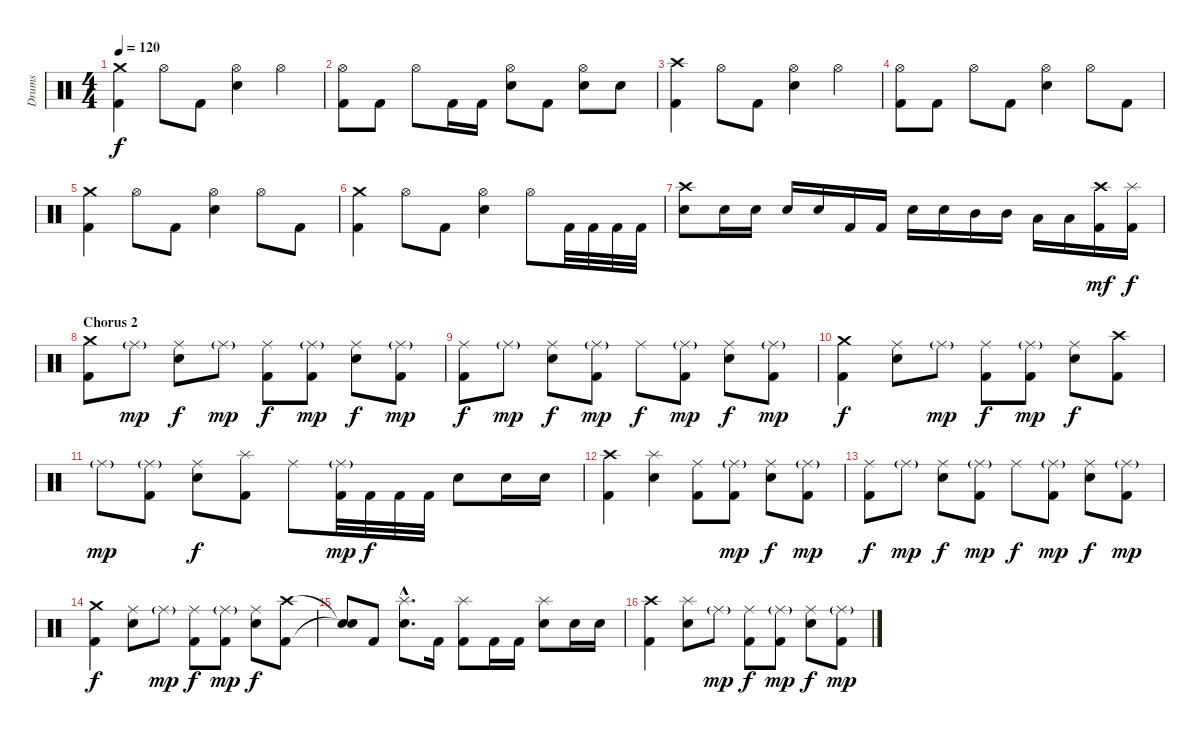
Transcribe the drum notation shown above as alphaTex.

\track ("Drums" "Drums") {instrument percussion}
\staff {score}
\articulation defaults
\ts (4 4)
\tempo 120
\clef neutral
\ks c
("Crash medium (hit)" "Kick (hit) 2").4{dy f} "Hi-Hat (open)".8 "Kick (hit) 2".8 ("Hi-Hat (open)" "Snare (hit) 2").4 "Hi-Hat (open)".4 |
("Hi-Hat (open)" "Kick (hit) 2").8 "Kick (hit) 2".8 "Hi-Hat (open)".8 "Kick (hit) 2".16 "Kick (hit) 2".16 ("Hi-Hat (open)" "Snare (hit) 2").8 "Kick (hit) 2".8 ("Hi-Hat (open)" "Snare (hit) 2").8 "Snare (hit) 2".8 |
("Crash high (hit)" "Kick (hit) 2").4 "Hi-Hat (open)".8 "Kick (hit) 2".8 ("Hi-Hat (open)" "Snare (hit) 2").4 "Hi-Hat (open)".4 |
("Hi-Hat (open)" "Kick (hit) 2").8 "Kick (hit) 2".8 "Hi-Hat (open)".8 "Kick (hit) 2".8 ("Hi-Hat (open)" "Snare (hit) 2").4 "Hi-Hat (open)".8 "Kick (hit) 2".8 |
("Crash medium (hit)" "Kick (hit) 2").4 "Hi-Hat (open)".8 "Kick (hit) 2".8 ("Hi-Hat (open)" "Snare (hit) 2").4 "Hi-Hat (open)".8 "Kick (hit) 2".8 |
("Crash medium (hit)" "Kick (hit) 2").4 "Hi-Hat (open)".8 "Kick (hit) 2".8 ("Hi-Hat (open)" "Snare (hit) 2").4 "Hi-Hat (open)".8 "Kick (hit) 2".32 "Kick (hit) 2".32 "Kick (hit) 2".32 "Kick (hit) 2".32 |
("Crash high (hit)" "Snare (hit) 2").8 "Snare (hit) 2".16 "Snare (hit) 2".16 "Snare (hit) 2".16 "Snare (hit) 2".16 "Kick (hit) 2".16 "Kick (hit) 2".16 "Snare (hit) 2".16 "Snare (hit) 2".16 "Mid Tom (hit)".16 "Mid Tom (hit)".16 "Low Tom (hit)".16 "Low Tom (hit)".16 ("Crash high (hit)" "Kick (hit) 2").16{dy mf} ("Splash (hit)" "Kick (hit) 2").16{dy f} |
\section ("" "Chorus 2")
("Crash medium (hit)" "Kick (hit) 2").8 "Ride (middle)"{g}.8{dy mp} ("Ride (middle)" "Snare (hit) 2").8{dy f} "Ride (middle)"{g}.8{dy mp} ("Ride (middle)" "Kick (hit) 2").8{dy f} ("Ride (middle)"{g} "Kick (hit) 2").8{dy mp} ("Ride (middle)" "Snare (hit) 2").8{dy f} ("Ride (middle)"{g} "Kick (hit) 2").8{dy mp} |
("Ride (middle)" "Kick (hit) 2").8{dy f} "Ride (middle)"{g}.8{dy mp} ("Ride (middle)" "Snare (hit) 2").8{dy f} ("Ride (middle)"{g} "Kick (hit) 2").8{dy mp} "Ride (middle)".8{dy f} ("Ride (middle)"{g} "Kick (hit) 2").8{dy mp} ("Ride (middle)" "Snare (hit) 2").8{dy f} ("Ride (middle)"{g} "Kick (hit) 2").8{dy mp} |
("Crash medium (hit)" "Kick (hit) 2").4{dy f} ("Ride (middle)" "Snare (hit) 2").8 "Ride (middle)"{g}.8{dy mp} ("Ride (middle)" "Kick (hit) 2").8{dy f} ("Ride (middle)"{g} "Kick (hit) 2").8{dy mp} ("Ride (middle)" "Snare (hit) 2").8{dy f} ("Crash high (hit)" "Kick (hit) 2").8 |
"Ride (middle)"{g}.8{dy mp} ("Ride (middle)"{g} "Kick (hit) 2").8 ("Ride (middle)" "Snare (hit) 2").8{dy f} ("Splash (hit)" "Kick (hit) 2").8 "Ride (middle)".8 ("Ride (middle)"{g} "Kick (hit) 2").32{dy mp} "Kick (hit) 2".32{dy f} "Kick (hit) 2".32 "Kick (hit) 2".32 "Snare (hit) 2".8 "Snare (hit) 2".16 "Snare (hit) 2".16 |
("Crash high (hit)" "Kick (hit) 2").4 ("Splash (hit)" "Snare (hit) 2").4 ("Ride (middle)" "Kick (hit) 2").8 ("Ride (middle)"{g} "Kick (hit) 2").8{dy mp} ("Ride (middle)" "Snare (hit) 2").8{dy f} ("Ride (middle)"{g} "Kick (hit) 2").8{dy mp} |
("Ride (middle)" "Kick (hit) 2").8{dy f} "Ride (middle)"{g}.8{dy mp} ("Ride (middle)" "Snare (hit) 2").8{dy f} ("Ride (middle)"{g} "Kick (hit) 2").8{dy mp} "Ride (middle)".8{dy f} ("Ride (middle)"{g} "Kick (hit) 2").8{dy mp} ("Ride (middle)" "Snare (hit) 2").8{dy f} ("Ride (middle)"{g} "Kick (hit) 2").8{dy mp} |
("Crash medium (hit)" "Kick (hit) 2").4{dy f} ("Ride (middle)" "Snare (hit) 2").8 "Ride (middle)"{g}.8{dy mp} ("Ride (middle)" "Kick (hit) 2").8{dy f} ("Ride (middle)"{g} "Kick (hit) 2").8{dy mp} ("Ride (middle)" "Snare (hit) 2").8{dy f} ("Crash high (hit)" "Kick (hit) 2").8 |
("Snare (hit)"{t} "Snare (hit)"{t}).8 "Kick (hit) 2".8 ("Splash (hit)"{hac} "Snare (hit) 2"{hac}).8{d} "Kick (hit) 2".16 ("Splash (hit)" "Kick (hit) 2").8 "Kick (hit) 2".16 "Kick (hit) 2".16 ("Splash (hit)" "Snare (hit) 2").8 "Snare (hit) 2".16 "Snare (hit) 2".16 |
("Crash high (hit)" "Kick (hit) 2").4 ("Splash (hit)" "Snare (hit) 2").8 "Ride (middle)"{g}.8{dy mp} ("Ride (middle)" "Kick (hit) 2").8{dy f} ("Ride (middle)"{g} "Kick (hit) 2").8{dy mp} ("Ride (middle)" "Snare (hit) 2").8{dy f} ("Ride (middle)"{g} "Kick (hit) 2").8{dy mp}
